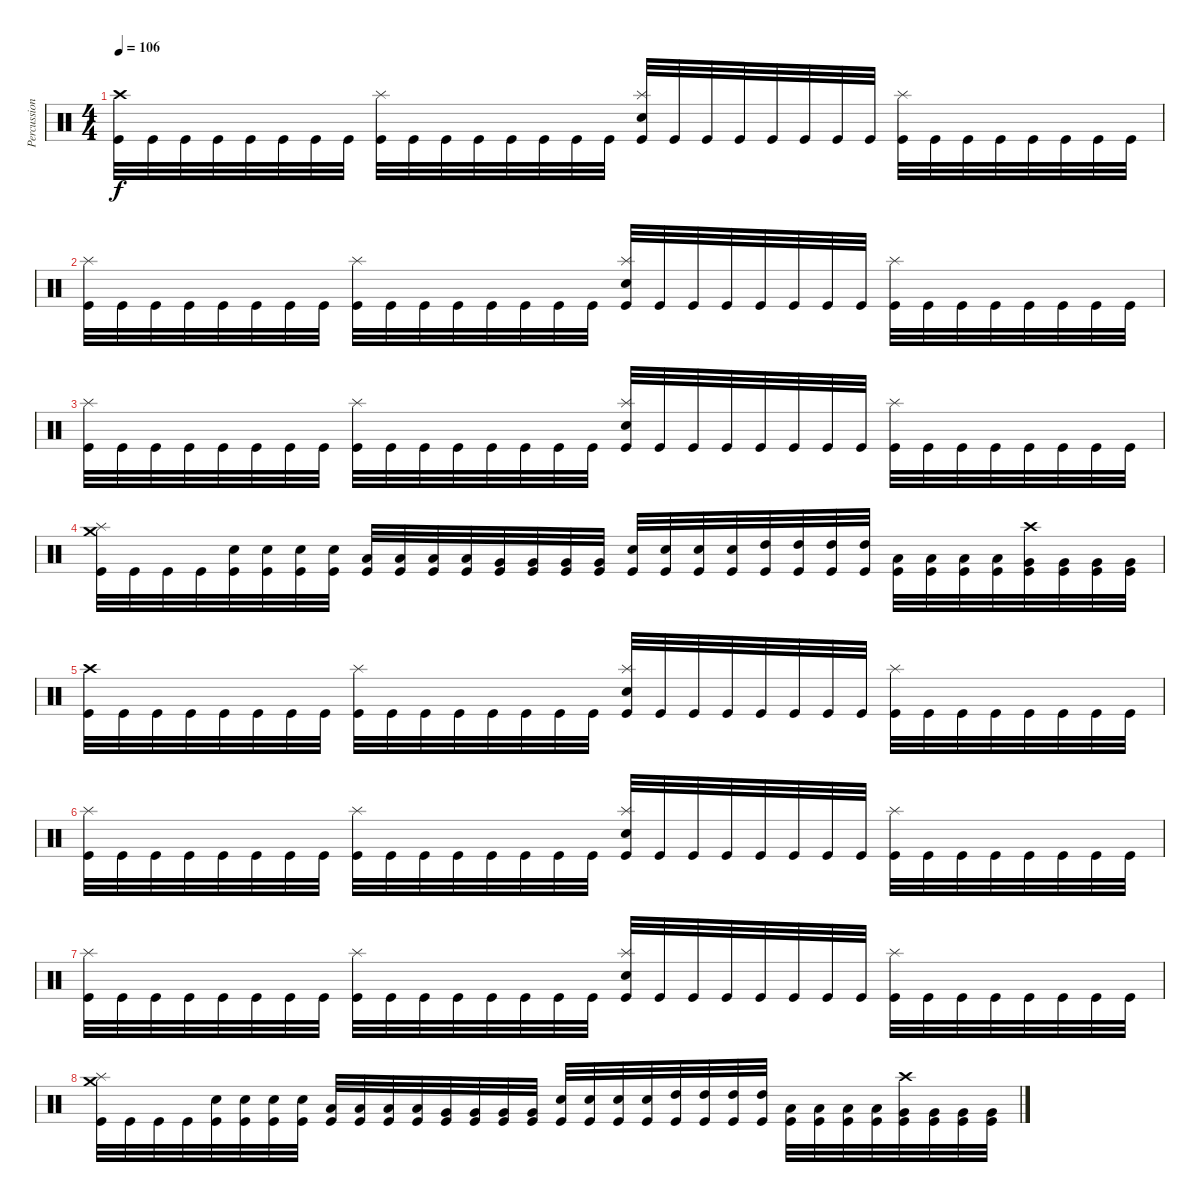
\track ("Percussion" "Percussion") {instrument percussion}
\staff {score}
\articulation defaults
\ts (4 4)
\tempo 106
\clef neutral
\ks c
("Crash high (hit)" "Kick (hit)").32{dy f} "Kick (hit)".32 "Kick (hit)".32 "Kick (hit)".32 "Kick (hit)".32 "Kick (hit)".32 "Kick (hit)".32 "Kick (hit)".32 ("Splash (hit)" "Kick (hit)").32 "Kick (hit)".32 "Kick (hit)".32 "Kick (hit)".32 "Kick (hit)".32 "Kick (hit)".32 "Kick (hit)".32 "Kick (hit)".32 ("Splash (hit)" "Electric Snare (hit)" "Kick (hit)").32 "Kick (hit)".32 "Kick (hit)".32 "Kick (hit)".32 "Kick (hit)".32 "Kick (hit)".32 "Kick (hit)".32 "Kick (hit)".32 ("Splash (hit)" "Kick (hit)").32 "Kick (hit)".32 "Kick (hit)".32 "Kick (hit)".32 "Kick (hit)".32 "Kick (hit)".32 "Kick (hit)".32 "Kick (hit)".32 |
("Splash (hit)" "Kick (hit)").32 "Kick (hit)".32 "Kick (hit)".32 "Kick (hit)".32 "Kick (hit)".32 "Kick (hit)".32 "Kick (hit)".32 "Kick (hit)".32 ("Splash (hit)" "Kick (hit)").32 "Kick (hit)".32 "Kick (hit)".32 "Kick (hit)".32 "Kick (hit)".32 "Kick (hit)".32 "Kick (hit)".32 "Kick (hit)".32 ("Electric Snare (hit)" "Splash (hit)" "Kick (hit)").32 "Kick (hit)".32 "Kick (hit)".32 "Kick (hit)".32 "Kick (hit)".32 "Kick (hit)".32 "Kick (hit)".32 "Kick (hit)".32 ("Splash (hit)" "Kick (hit)").32 "Kick (hit)".32 "Kick (hit)".32 "Kick (hit)".32 "Kick (hit)".32 "Kick (hit)".32 "Kick (hit)".32 "Kick (hit)".32 |
("Splash (hit)" "Kick (hit)").32 "Kick (hit)".32 "Kick (hit)".32 "Kick (hit)".32 "Kick (hit)".32 "Kick (hit)".32 "Kick (hit)".32 "Kick (hit)".32 ("Splash (hit)" "Kick (hit)").32 "Kick (hit)".32 "Kick (hit)".32 "Kick (hit)".32 "Kick (hit)".32 "Kick (hit)".32 "Kick (hit)".32 "Kick (hit)".32 ("Electric Snare (hit)" "Splash (hit)" "Kick (hit)").32 "Kick (hit)".32 "Kick (hit)".32 "Kick (hit)".32 "Kick (hit)".32 "Kick (hit)".32 "Kick (hit)".32 "Kick (hit)".32 ("Splash (hit)" "Kick (hit)").32 "Kick (hit)".32 "Kick (hit)".32 "Kick (hit)".32 "Kick (hit)".32 "Kick (hit)".32 "Kick (hit)".32 "Kick (hit)".32 |
("Crash medium (hit)" "Splash (hit)" "Kick (hit)").32 "Kick (hit)".32 "Kick (hit)".32 "Kick (hit)".32 ("Electric Snare (hit)" "Kick (hit)").32 ("Electric Snare (hit)" "Kick (hit)").32 ("Electric Snare (hit)" "Kick (hit)").32 ("Electric Snare (hit)" "Kick (hit)").32 ("Low Tom (hit)" "Kick (hit)").32 ("Low Tom (hit)" "Kick (hit)").32 ("Low Tom (hit)" "Kick (hit)").32 ("Low Tom (hit)" "Kick (hit)").32 ("Very Low Tom (hit)" "Kick (hit)").32 ("Very Low Tom (hit)" "Kick (hit)").32 ("Very Low Tom (hit)" "Kick (hit)").32 ("Very Low Tom (hit)" "Kick (hit)").32 ("Electric Snare (hit)" "Kick (hit)").32 ("Electric Snare (hit)" "Kick (hit)").32 ("Electric Snare (hit)" "Kick (hit)").32 ("Electric Snare (hit)" "Kick (hit)").32 ("High Tom (hit)" "Kick (hit)").32 ("High Tom (hit)" "Kick (hit)").32 ("High Tom (hit)" "Kick (hit)").32 ("High Tom (hit)" "Kick (hit)").32 ("Low Tom (hit)" "Kick (hit)").32 ("Low Tom (hit)" "Kick (hit)").32 ("Low Tom (hit)" "Kick (hit)").32 ("Low Tom (hit)" "Kick (hit)").32 ("Crash high (hit)" "Very Low Tom (hit)" "Kick (hit)").32 ("Very Low Tom (hit)" "Kick (hit)").32 ("Very Low Tom (hit)" "Kick (hit)").32 ("Very Low Tom (hit)" "Kick (hit)").32 |
("Crash high (hit)" "Kick (hit)").32 "Kick (hit)".32 "Kick (hit)".32 "Kick (hit)".32 "Kick (hit)".32 "Kick (hit)".32 "Kick (hit)".32 "Kick (hit)".32 ("Splash (hit)" "Kick (hit)").32 "Kick (hit)".32 "Kick (hit)".32 "Kick (hit)".32 "Kick (hit)".32 "Kick (hit)".32 "Kick (hit)".32 "Kick (hit)".32 ("Splash (hit)" "Electric Snare (hit)" "Kick (hit)").32 "Kick (hit)".32 "Kick (hit)".32 "Kick (hit)".32 "Kick (hit)".32 "Kick (hit)".32 "Kick (hit)".32 "Kick (hit)".32 ("Splash (hit)" "Kick (hit)").32 "Kick (hit)".32 "Kick (hit)".32 "Kick (hit)".32 "Kick (hit)".32 "Kick (hit)".32 "Kick (hit)".32 "Kick (hit)".32 |
("Splash (hit)" "Kick (hit)").32 "Kick (hit)".32 "Kick (hit)".32 "Kick (hit)".32 "Kick (hit)".32 "Kick (hit)".32 "Kick (hit)".32 "Kick (hit)".32 ("Splash (hit)" "Kick (hit)").32 "Kick (hit)".32 "Kick (hit)".32 "Kick (hit)".32 "Kick (hit)".32 "Kick (hit)".32 "Kick (hit)".32 "Kick (hit)".32 ("Electric Snare (hit)" "Splash (hit)" "Kick (hit)").32 "Kick (hit)".32 "Kick (hit)".32 "Kick (hit)".32 "Kick (hit)".32 "Kick (hit)".32 "Kick (hit)".32 "Kick (hit)".32 ("Splash (hit)" "Kick (hit)").32 "Kick (hit)".32 "Kick (hit)".32 "Kick (hit)".32 "Kick (hit)".32 "Kick (hit)".32 "Kick (hit)".32 "Kick (hit)".32 |
("Splash (hit)" "Kick (hit)").32 "Kick (hit)".32 "Kick (hit)".32 "Kick (hit)".32 "Kick (hit)".32 "Kick (hit)".32 "Kick (hit)".32 "Kick (hit)".32 ("Splash (hit)" "Kick (hit)").32 "Kick (hit)".32 "Kick (hit)".32 "Kick (hit)".32 "Kick (hit)".32 "Kick (hit)".32 "Kick (hit)".32 "Kick (hit)".32 ("Electric Snare (hit)" "Splash (hit)" "Kick (hit)").32 "Kick (hit)".32 "Kick (hit)".32 "Kick (hit)".32 "Kick (hit)".32 "Kick (hit)".32 "Kick (hit)".32 "Kick (hit)".32 ("Splash (hit)" "Kick (hit)").32 "Kick (hit)".32 "Kick (hit)".32 "Kick (hit)".32 "Kick (hit)".32 "Kick (hit)".32 "Kick (hit)".32 "Kick (hit)".32 |
("Crash medium (hit)" "Splash (hit)" "Kick (hit)").32 "Kick (hit)".32 "Kick (hit)".32 "Kick (hit)".32 ("Electric Snare (hit)" "Kick (hit)").32 ("Electric Snare (hit)" "Kick (hit)").32 ("Electric Snare (hit)" "Kick (hit)").32 ("Electric Snare (hit)" "Kick (hit)").32 ("Low Tom (hit)" "Kick (hit)").32 ("Low Tom (hit)" "Kick (hit)").32 ("Low Tom (hit)" "Kick (hit)").32 ("Low Tom (hit)" "Kick (hit)").32 ("Very Low Tom (hit)" "Kick (hit)").32 ("Very Low Tom (hit)" "Kick (hit)").32 ("Very Low Tom (hit)" "Kick (hit)").32 ("Very Low Tom (hit)" "Kick (hit)").32 ("Electric Snare (hit)" "Kick (hit)").32 ("Electric Snare (hit)" "Kick (hit)").32 ("Electric Snare (hit)" "Kick (hit)").32 ("Electric Snare (hit)" "Kick (hit)").32 ("High Tom (hit)" "Kick (hit)").32 ("High Tom (hit)" "Kick (hit)").32 ("High Tom (hit)" "Kick (hit)").32 ("High Tom (hit)" "Kick (hit)").32 ("Low Tom (hit)" "Kick (hit)").32 ("Low Tom (hit)" "Kick (hit)").32 ("Low Tom (hit)" "Kick (hit)").32 ("Low Tom (hit)" "Kick (hit)").32 ("Crash high (hit)" "Very Low Tom (hit)" "Kick (hit)").32 ("Very Low Tom (hit)" "Kick (hit)").32 ("Very Low Tom (hit)" "Kick (hit)").32 ("Very Low Tom (hit)" "Kick (hit)").32
